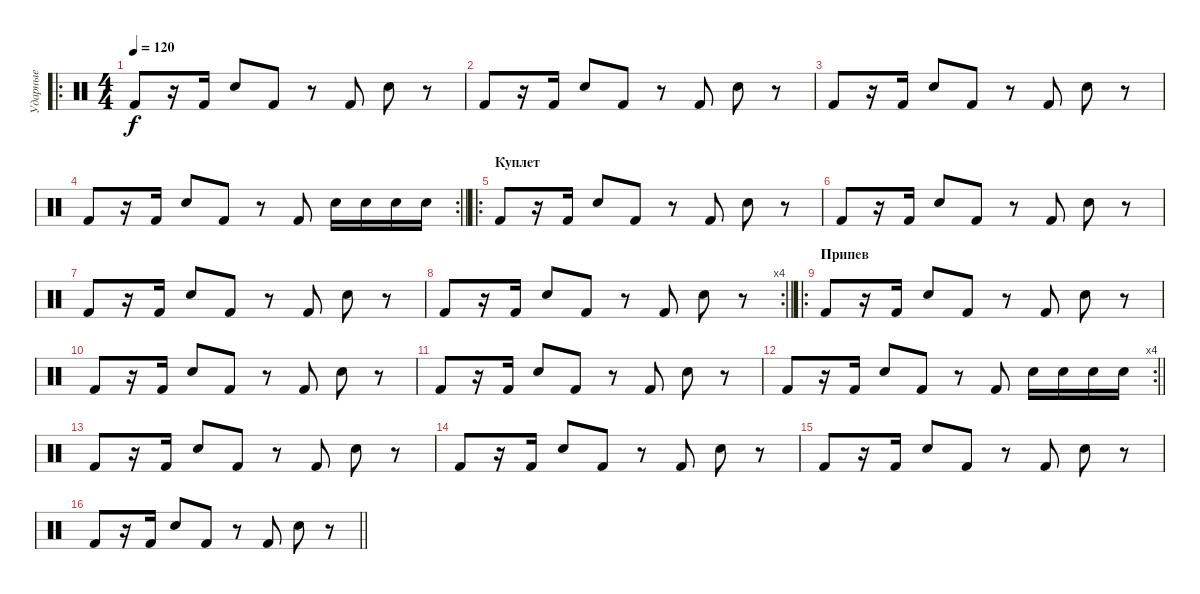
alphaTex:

\track ("Ударные" "Ударные") {instrument percussion}
\staff {score}
\articulation defaults
\ro
\ts (4 4)
\tempo 120
\clef neutral
\ks c "Kick (hit) 2".8{dy f}
r.16 "Kick (hit) 2".16 "Snare (hit) 2".8 "Kick (hit) 2".8 r.8 "Kick (hit) 2".8 "Snare (hit) 2".8 r.8 |
"Kick (hit) 2".8 r.16 "Kick (hit) 2".16 "Snare (hit) 2".8 "Kick (hit) 2".8 r.8 "Kick (hit) 2".8 "Snare (hit) 2".8 r.8 |
"Kick (hit) 2".8 r.16 "Kick (hit) 2".16 "Snare (hit) 2".8 "Kick (hit) 2".8 r.8 "Kick (hit) 2".8 "Snare (hit) 2".8 r.8 |
\rc 2
\barLineRight lightlight "Kick (hit) 2".8
r.16 "Kick (hit) 2".16 "Snare (hit) 2".8 "Kick (hit) 2".8 r.8 "Kick (hit) 2".8 "Snare (hit) 2".16 "Snare (hit) 2".16 "Snare (hit) 2".16 "Snare (hit) 2".16 |
\ro
\section ("" "Куплет")
"Kick (hit) 2".8 r.16 "Kick (hit) 2".16 "Snare (hit) 2".8 "Kick (hit) 2".8 r.8 "Kick (hit) 2".8 "Snare (hit) 2".8 r.8 |
"Kick (hit) 2".8 r.16 "Kick (hit) 2".16 "Snare (hit) 2".8 "Kick (hit) 2".8 r.8 "Kick (hit) 2".8 "Snare (hit) 2".8 r.8 |
"Kick (hit) 2".8 r.16 "Kick (hit) 2".16 "Snare (hit) 2".8 "Kick (hit) 2".8 r.8 "Kick (hit) 2".8 "Snare (hit) 2".8 r.8 |
\rc 4
\barLineRight lightlight "Kick (hit) 2".8
r.16 "Kick (hit) 2".16 "Snare (hit) 2".8 "Kick (hit) 2".8 r.8 "Kick (hit) 2".8 "Snare (hit) 2".8 r.8 |
\ro
\section ("" "Припев")
"Kick (hit) 2".8 r.16 "Kick (hit) 2".16 "Snare (hit) 2".8 "Kick (hit) 2".8 r.8 "Kick (hit) 2".8 "Snare (hit) 2".8 r.8 |
"Kick (hit) 2".8 r.16 "Kick (hit) 2".16 "Snare (hit) 2".8 "Kick (hit) 2".8 r.8 "Kick (hit) 2".8 "Snare (hit) 2".8 r.8 |
"Kick (hit) 2".8 r.16 "Kick (hit) 2".16 "Snare (hit) 2".8 "Kick (hit) 2".8 r.8 "Kick (hit) 2".8 "Snare (hit) 2".8 r.8 |
\rc 4
\barLineRight lightlight "Kick (hit) 2".8
r.16 "Kick (hit) 2".16 "Snare (hit) 2".8 "Kick (hit) 2".8 r.8 "Kick (hit) 2".8 "Snare (hit) 2".16 "Snare (hit) 2".16 "Snare (hit) 2".16 "Snare (hit) 2".16 |
"Kick (hit) 2".8 r.16 "Kick (hit) 2".16 "Snare (hit) 2".8 "Kick (hit) 2".8 r.8 "Kick (hit) 2".8 "Snare (hit) 2".8 r.8 |
"Kick (hit) 2".8 r.16 "Kick (hit) 2".16 "Snare (hit) 2".8 "Kick (hit) 2".8 r.8 "Kick (hit) 2".8 "Snare (hit) 2".8 r.8 |
"Kick (hit) 2".8 r.16 "Kick (hit) 2".16 "Snare (hit) 2".8 "Kick (hit) 2".8 r.8 "Kick (hit) 2".8 "Snare (hit) 2".8 r.8 |
\barLineRight lightlight "Kick (hit) 2".8
r.16 "Kick (hit) 2".16 "Snare (hit) 2".8 "Kick (hit) 2".8 r.8 "Kick (hit) 2".8 "Snare (hit) 2".8 r.8
